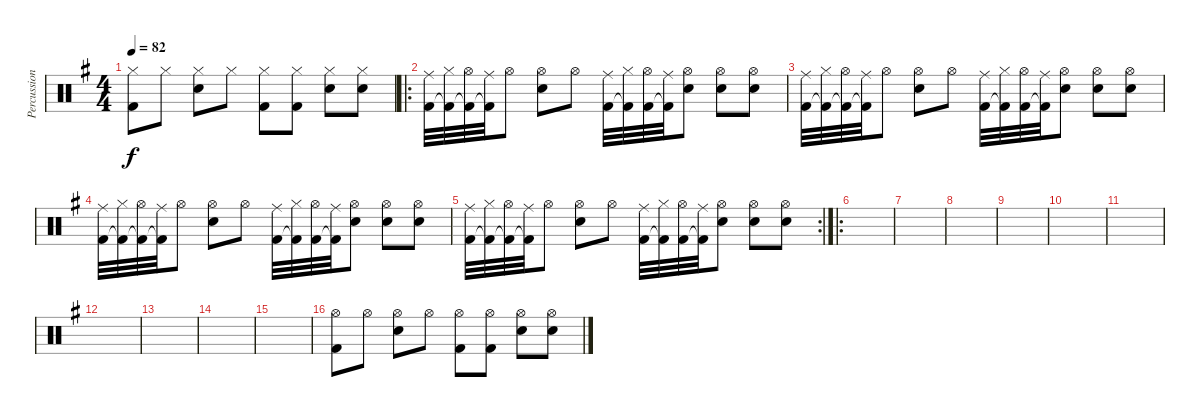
\track ("Percussions" "Percussion") {instrument percussion}
\staff {score}
\articulation defaults
\ts (4 4)
\tempo 82
\clef neutral
\ks g
("Hi-Hat (closed)" "Kick (hit) 2").8{dy f} "Hi-Hat (closed)".8 ("Hi-Hat (closed)" "Snare (hit) 2").8 "Hi-Hat (closed)".8 ("Hi-Hat (closed)" "Kick (hit) 2").8 ("Hi-Hat (closed)" "Kick (hit) 2").8 ("Hi-Hat (closed)" "Snare (hit) 2").8 ("Hi-Hat (closed)" "Snare (hit) 2").8 |
\ro
("Ride (middle)" "Kick (hit) 2").32 ("Hi-Hat (closed)" "Kick (hit) 2"{t}).32 ("Hi-Hat (open)" "Kick (hit) 2"{t}).32 ("Ride (middle)" "Kick (hit) 2"{t}).32 "Hi-Hat (open)".8 ("Hi-Hat (open)" "Snare (hit) 2").8 "Hi-Hat (open)".8 ("Ride (middle)" "Kick (hit) 2").32 ("Hi-Hat (closed)" "Kick (hit) 2"{t}).32 ("Hi-Hat (open)" "Kick (hit) 2").32 ("Ride (middle)" "Kick (hit) 2"{t}).32 ("Hi-Hat (open)" "Snare (hit) 2").8 ("Hi-Hat (open)" "Snare (hit) 2").8 ("Hi-Hat (open)" "Snare (hit) 2").8 |
("Ride (middle)" "Kick (hit) 2").32 ("Hi-Hat (closed)" "Kick (hit) 2"{t}).32 ("Hi-Hat (open)" "Kick (hit) 2"{t}).32 ("Ride (middle)" "Kick (hit) 2"{t}).32 "Hi-Hat (open)".8 ("Hi-Hat (open)" "Snare (hit) 2").8 "Hi-Hat (open)".8 ("Ride (middle)" "Kick (hit) 2").32 ("Hi-Hat (closed)" "Kick (hit) 2"{t}).32 ("Hi-Hat (open)" "Kick (hit) 2").32 ("Ride (middle)" "Kick (hit) 2"{t}).32 ("Hi-Hat (open)" "Snare (hit) 2").8 ("Hi-Hat (open)" "Snare (hit) 2").8 ("Hi-Hat (open)" "Snare (hit) 2").8 |
("Ride (middle)" "Kick (hit) 2").32 ("Hi-Hat (closed)" "Kick (hit) 2"{t}).32 ("Hi-Hat (open)" "Kick (hit) 2"{t}).32 ("Ride (middle)" "Kick (hit) 2"{t}).32 "Hi-Hat (open)".8 ("Hi-Hat (open)" "Snare (hit) 2").8 "Hi-Hat (open)".8 ("Ride (middle)" "Kick (hit) 2").32 ("Hi-Hat (closed)" "Kick (hit) 2"{t}).32 ("Hi-Hat (open)" "Kick (hit) 2").32 ("Ride (middle)" "Kick (hit) 2"{t}).32 ("Hi-Hat (open)" "Snare (hit) 2").8 ("Hi-Hat (open)" "Snare (hit) 2").8 ("Hi-Hat (open)" "Snare (hit) 2").8 |
\rc 2
("Ride (middle)" "Kick (hit) 2").32 ("Hi-Hat (closed)" "Kick (hit) 2"{t}).32 ("Hi-Hat (open)" "Kick (hit) 2"{t}).32 ("Ride (middle)" "Kick (hit) 2"{t}).32 "Hi-Hat (open)".8 ("Hi-Hat (open)" "Snare (hit) 2").8 "Hi-Hat (open)".8 ("Ride (middle)" "Kick (hit) 2").32 ("Hi-Hat (closed)" "Kick (hit) 2"{t}).32 ("Hi-Hat (open)" "Kick (hit) 2").32 ("Ride (middle)" "Kick (hit) 2"{t}).32 ("Hi-Hat (open)" "Snare (hit) 2").8 ("Hi-Hat (open)" "Snare (hit) 2").8 ("Hi-Hat (open)" "Snare (hit) 2").8 |
\ro
|
|
|
|
|
|
|
|
|
|
("Hi-Hat (open)" "Kick (hit) 2").8 "Hi-Hat (open)".8 ("Hi-Hat (open)" "Snare (hit) 2").8 "Hi-Hat (open)".8 ("Hi-Hat (open)" "Kick (hit) 2").8 ("Hi-Hat (open)" "Kick (hit) 2").8 ("Hi-Hat (open)" "Snare (hit) 2").8 ("Hi-Hat (open)" "Snare (hit) 2").8
